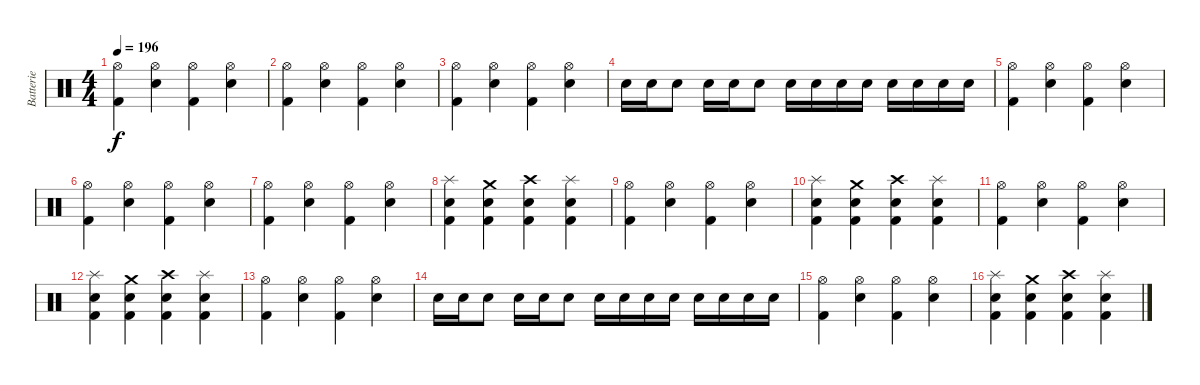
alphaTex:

\track ("Batterie" "Batterie") {instrument percussion}
\staff {score}
\articulation defaults
\ts (4 4)
\tempo 196
\clef neutral
\ks c
("Hi-Hat (open)" "Kick (hit) 2").4{dy f} ("Hi-Hat (open)" "Electric Snare (hit)").4 ("Hi-Hat (open)" "Kick (hit) 2").4 ("Hi-Hat (open)" "Electric Snare (hit)").4 |
("Hi-Hat (open)" "Kick (hit) 2").4 ("Hi-Hat (open)" "Electric Snare (hit)").4 ("Hi-Hat (open)" "Kick (hit) 2").4 ("Hi-Hat (open)" "Electric Snare (hit)").4 |
("Hi-Hat (open)" "Kick (hit) 2").4 ("Hi-Hat (open)" "Electric Snare (hit)").4 ("Hi-Hat (open)" "Kick (hit) 2").4 ("Hi-Hat (open)" "Electric Snare (hit)").4 |
"Electric Snare (hit)".16 "Electric Snare (hit)".16 "Electric Snare (hit)".8 "Electric Snare (hit)".16 "Electric Snare (hit)".16 "Electric Snare (hit)".8 "Electric Snare (hit)".16 "Electric Snare (hit)".16 "Electric Snare (hit)".16 "Electric Snare (hit)".16 "Electric Snare (hit)".16 "Electric Snare (hit)".16 "Electric Snare (hit)".16 "Electric Snare (hit)".16 |
("Hi-Hat (open)" "Kick (hit) 2").4 ("Hi-Hat (open)" "Electric Snare (hit)").4 ("Hi-Hat (open)" "Kick (hit) 2").4 ("Hi-Hat (open)" "Electric Snare (hit)").4 |
("Hi-Hat (open)" "Kick (hit) 2").4 ("Hi-Hat (open)" "Electric Snare (hit)").4 ("Hi-Hat (open)" "Kick (hit) 2").4 ("Hi-Hat (open)" "Electric Snare (hit)").4 |
("Hi-Hat (open)" "Kick (hit) 2").4 ("Hi-Hat (open)" "Electric Snare (hit)").4 ("Hi-Hat (open)" "Kick (hit) 2").4 ("Hi-Hat (open)" "Electric Snare (hit)").4 |
("Splash (hit)" "Kick (hit) 2" "Electric Snare (hit)").4 ("Crash medium (hit)" "Kick (hit) 2" "Electric Snare (hit)").4 ("Crash high (hit)" "Kick (hit) 2" "Electric Snare (hit)").4 ("Splash (hit)" "Kick (hit) 2" "Electric Snare (hit)").4 |
("Hi-Hat (open)" "Kick (hit) 2").4 ("Hi-Hat (open)" "Electric Snare (hit)").4 ("Hi-Hat (open)" "Kick (hit) 2").4 ("Hi-Hat (open)" "Electric Snare (hit)").4 |
("Splash (hit)" "Kick (hit) 2" "Electric Snare (hit)").4 ("Crash medium (hit)" "Kick (hit) 2" "Electric Snare (hit)").4 ("Crash high (hit)" "Kick (hit) 2" "Electric Snare (hit)").4 ("Splash (hit)" "Kick (hit) 2" "Electric Snare (hit)").4 |
("Hi-Hat (open)" "Kick (hit) 2").4 ("Hi-Hat (open)" "Electric Snare (hit)").4 ("Hi-Hat (open)" "Kick (hit) 2").4 ("Hi-Hat (open)" "Electric Snare (hit)").4 |
("Splash (hit)" "Kick (hit) 2" "Electric Snare (hit)").4 ("Crash medium (hit)" "Kick (hit) 2" "Electric Snare (hit)").4 ("Crash high (hit)" "Kick (hit) 2" "Electric Snare (hit)").4 ("Splash (hit)" "Kick (hit) 2" "Electric Snare (hit)").4 |
("Hi-Hat (open)" "Kick (hit) 2").4 ("Hi-Hat (open)" "Electric Snare (hit)").4 ("Hi-Hat (open)" "Kick (hit) 2").4 ("Hi-Hat (open)" "Electric Snare (hit)").4 |
"Electric Snare (hit)".16 "Electric Snare (hit)".16 "Electric Snare (hit)".8 "Electric Snare (hit)".16 "Electric Snare (hit)".16 "Electric Snare (hit)".8 "Electric Snare (hit)".16 "Electric Snare (hit)".16 "Electric Snare (hit)".16 "Electric Snare (hit)".16 "Electric Snare (hit)".16 "Electric Snare (hit)".16 "Electric Snare (hit)".16 "Electric Snare (hit)".16 |
("Hi-Hat (open)" "Kick (hit) 2").4 ("Hi-Hat (open)" "Electric Snare (hit)").4 ("Hi-Hat (open)" "Kick (hit) 2").4 ("Hi-Hat (open)" "Electric Snare (hit)").4 |
("Splash (hit)" "Kick (hit) 2" "Electric Snare (hit)").4 ("Crash medium (hit)" "Kick (hit) 2" "Electric Snare (hit)").4 ("Crash high (hit)" "Kick (hit) 2" "Electric Snare (hit)").4 ("Splash (hit)" "Kick (hit) 2" "Electric Snare (hit)").4
